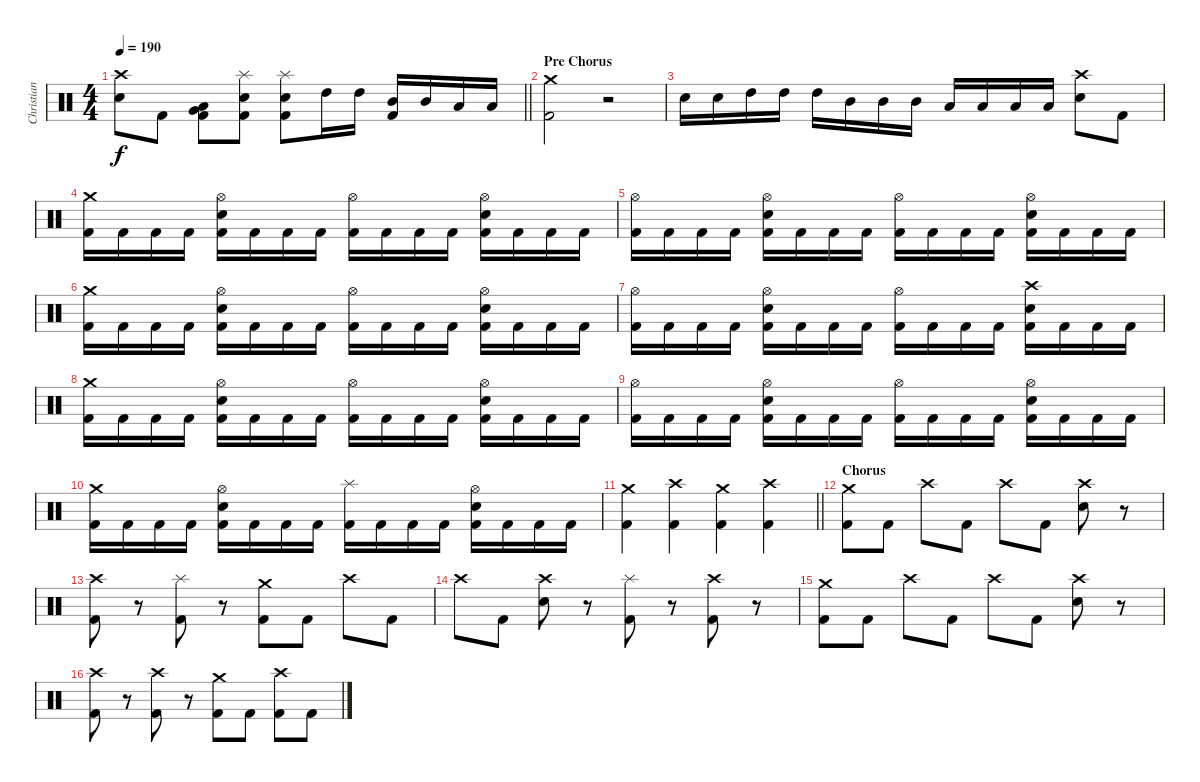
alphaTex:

\track ("Christian" "Christian") {instrument percussion}
\staff {score}
\articulation defaults
\ts (4 4)
\tempo 190
\clef neutral
\barLineRight lightlight
\ks c
("Crash high (hit)" "Electric Snare (hit)").8{dy f} "Kick (hit) 2".8 ("Low Tom (hit)" "Very Low Tom (hit)" "Kick (hit) 2").8 ("Splash (hit)" "Electric Snare (hit)" "Kick (hit) 2").8 ("Splash (hit)" "Electric Snare (hit)" "Kick (hit) 2").8 "High Tom (hit)".16 "High Tom (hit)".16 ("Mid Tom (hit)" "Kick (hit) 2").16 "Mid Tom (hit)".16 "Low Tom (hit)".16 "Low Tom (hit)".16 |
\section ("" "Pre Chorus")
("Crash medium (hit)" "Kick (hit) 2").2 r.2 |
"Electric Snare (hit)".16 "Electric Snare (hit)".16 "High Tom (hit)".16 "High Tom (hit)".16 "High Tom (hit)".16 "Mid Tom (hit)".16 "Mid Tom (hit)".16 "Mid Tom (hit)".16 "Low Tom (hit)".16 "Low Tom (hit)".16 "Low Tom (hit)".16 "Low Tom (hit)".16 ("Crash high (hit)" "Electric Snare (hit)").8 "Kick (hit) 2".8 |
("Crash medium (hit)" "Kick (hit) 2").16 "Kick (hit) 2".16 "Kick (hit) 2".16 "Kick (hit) 2".16 ("Hi-Hat (open)" "Electric Snare (hit)" "Kick (hit) 2").16 "Kick (hit) 2".16 "Kick (hit) 2".16 "Kick (hit) 2".16 ("Hi-Hat (open)" "Kick (hit) 2").16 "Kick (hit) 2".16 "Kick (hit) 2".16 "Kick (hit) 2".16 ("Hi-Hat (open)" "Electric Snare (hit)" "Kick (hit) 2").16 "Kick (hit) 2".16 "Kick (hit) 2".16 "Kick (hit) 2".16 |
("Hi-Hat (open)" "Kick (hit) 2").16 "Kick (hit) 2".16 "Kick (hit) 2".16 "Kick (hit) 2".16 ("Hi-Hat (open)" "Electric Snare (hit)" "Kick (hit) 2").16 "Kick (hit) 2".16 "Kick (hit) 2".16 "Kick (hit) 2".16 ("Hi-Hat (open)" "Kick (hit) 2").16 "Kick (hit) 2".16 "Kick (hit) 2".16 "Kick (hit) 2".16 ("Hi-Hat (open)" "Electric Snare (hit)" "Kick (hit) 2").16 "Kick (hit) 2".16 "Kick (hit) 2".16 "Kick (hit) 2".16 |
("Crash medium (hit)" "Kick (hit) 2").16 "Kick (hit) 2".16 "Kick (hit) 2".16 "Kick (hit) 2".16 ("Hi-Hat (open)" "Electric Snare (hit)" "Kick (hit) 2").16 "Kick (hit) 2".16 "Kick (hit) 2".16 "Kick (hit) 2".16 ("Hi-Hat (open)" "Kick (hit) 2").16 "Kick (hit) 2".16 "Kick (hit) 2".16 "Kick (hit) 2".16 ("Hi-Hat (open)" "Electric Snare (hit)" "Kick (hit) 2").16 "Kick (hit) 2".16 "Kick (hit) 2".16 "Kick (hit) 2".16 |
("Hi-Hat (open)" "Kick (hit) 2").16 "Kick (hit) 2".16 "Kick (hit) 2".16 "Kick (hit) 2".16 ("Hi-Hat (open)" "Electric Snare (hit)" "Kick (hit) 2").16 "Kick (hit) 2".16 "Kick (hit) 2".16 "Kick (hit) 2".16 ("Hi-Hat (open)" "Kick (hit) 2").16 "Kick (hit) 2".16 "Kick (hit) 2".16 "Kick (hit) 2".16 ("Crash high (hit)" "Electric Snare (hit)" "Kick (hit) 2").16 "Kick (hit) 2".16 "Kick (hit) 2".16 "Kick (hit) 2".16 |
("Crash medium (hit)" "Kick (hit) 2").16 "Kick (hit) 2".16 "Kick (hit) 2".16 "Kick (hit) 2".16 ("Hi-Hat (open)" "Electric Snare (hit)" "Kick (hit) 2").16 "Kick (hit) 2".16 "Kick (hit) 2".16 "Kick (hit) 2".16 ("Hi-Hat (open)" "Kick (hit) 2").16 "Kick (hit) 2".16 "Kick (hit) 2".16 "Kick (hit) 2".16 ("Hi-Hat (open)" "Electric Snare (hit)" "Kick (hit) 2").16 "Kick (hit) 2".16 "Kick (hit) 2".16 "Kick (hit) 2".16 |
("Hi-Hat (open)" "Kick (hit) 2").16 "Kick (hit) 2".16 "Kick (hit) 2".16 "Kick (hit) 2".16 ("Hi-Hat (open)" "Electric Snare (hit)" "Kick (hit) 2").16 "Kick (hit) 2".16 "Kick (hit) 2".16 "Kick (hit) 2".16 ("Hi-Hat (open)" "Kick (hit) 2").16 "Kick (hit) 2".16 "Kick (hit) 2".16 "Kick (hit) 2".16 ("Hi-Hat (open)" "Electric Snare (hit)" "Kick (hit) 2").16 "Kick (hit) 2".16 "Kick (hit) 2".16 "Kick (hit) 2".16 |
("Crash medium (hit)" "Kick (hit) 2").16 "Kick (hit) 2".16 "Kick (hit) 2".16 "Kick (hit) 2".16 ("Hi-Hat (open)" "Electric Snare (hit)" "Kick (hit) 2").16 "Kick (hit) 2".16 "Kick (hit) 2".16 "Kick (hit) 2".16 ("Splash (hit)" "Kick (hit) 2").16 "Kick (hit) 2".16 "Kick (hit) 2".16 "Kick (hit) 2".16 ("Hi-Hat (open)" "Electric Snare (hit)" "Kick (hit) 2").16 "Kick (hit) 2".16 "Kick (hit) 2".16 "Kick (hit) 2".16 |
\barLineRight lightlight
("Crash medium (hit)" "Kick (hit) 2").4 ("Crash high (hit)" "Kick (hit) 2").4 ("Crash medium (hit)" "Kick (hit) 2").4 ("Crash high (hit)" "Kick (hit) 2").4 |
\section ("" "Chorus")
("Crash medium (hit)" "Kick (hit) 2").8 "Kick (hit) 2".8 "Crash high (hit)".8 "Kick (hit) 2".8 "Crash high (hit)".8 "Kick (hit) 2".8 ("Crash high (hit)" "Electric Snare (hit)").8 r.8 |
("Crash high (hit)" "Kick (hit) 2").8 r.8 ("Splash (hit)" "Kick (hit) 2").8 r.8 ("Crash medium (hit)" "Kick (hit) 2").8 "Kick (hit) 2".8 "Crash high (hit)".8 "Kick (hit) 2".8 |
"Crash high (hit)".8 "Kick (hit) 2".8 ("Crash high (hit)" "Electric Snare (hit)").8 r.8 ("Splash (hit)" "Kick (hit) 2").8 r.8 ("Crash high (hit)" "Kick (hit) 2").8 r.8 |
("Crash medium (hit)" "Kick (hit) 2").8 "Kick (hit) 2".8 "Crash high (hit)".8 "Kick (hit) 2".8 "Crash high (hit)".8 "Kick (hit) 2".8 ("Crash high (hit)" "Electric Snare (hit)").8 r.8 |
("Crash high (hit)" "Kick (hit) 2").8 r.8 ("Crash high (hit)" "Kick (hit) 2").8 r.8 ("Crash medium (hit)" "Kick (hit) 2").8 "Kick (hit) 2".8 ("Crash high (hit)" "Kick (hit) 2").8 "Kick (hit) 2".8
